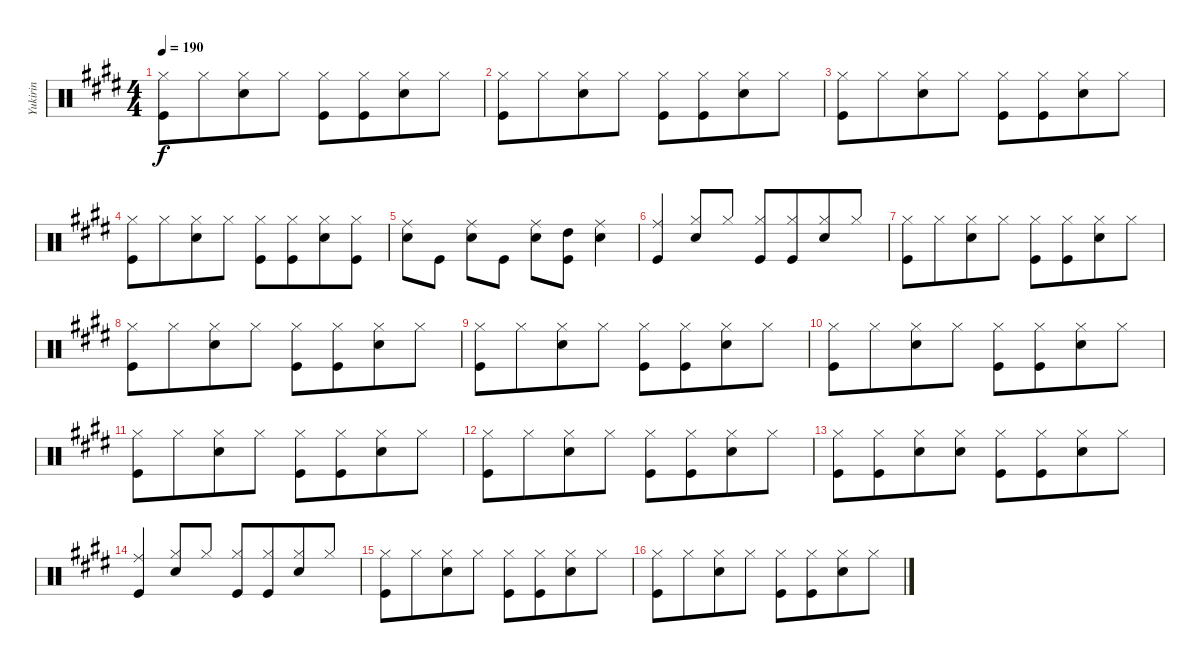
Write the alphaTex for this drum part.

\track ("Yukirin" "Yukirin") {mute instrument percussion}
\staff {score}
\articulation defaults
\ts (4 4)
\tempo 190
\clef neutral
\ks e
("Hi-Hat (closed)" "Kick (hit)").8{dy f} "Hi-Hat (closed)".8{beam merge} ("Hi-Hat (closed)" "Snare (hit) 2").8 "Hi-Hat (closed)".8 ("Hi-Hat (closed)" "Kick (hit)").8 ("Hi-Hat (closed)" "Kick (hit)").8{beam merge} ("Hi-Hat (closed)" "Snare (hit) 2").8 "Hi-Hat (closed)".8 |
("Hi-Hat (closed)" "Kick (hit)").8 "Hi-Hat (closed)".8{beam merge} ("Hi-Hat (closed)" "Snare (hit) 2").8 "Hi-Hat (closed)".8 ("Hi-Hat (closed)" "Kick (hit)").8 ("Hi-Hat (closed)" "Kick (hit)").8{beam merge} ("Hi-Hat (closed)" "Snare (hit) 2").8 "Hi-Hat (closed)".8 |
("Hi-Hat (closed)" "Kick (hit)").8 "Hi-Hat (closed)".8{beam merge} ("Hi-Hat (closed)" "Snare (hit) 2").8 "Hi-Hat (closed)".8 ("Hi-Hat (closed)" "Kick (hit)").8 ("Hi-Hat (closed)" "Kick (hit)").8{beam merge} ("Hi-Hat (closed)" "Snare (hit) 2").8 "Hi-Hat (closed)".8 |
("Hi-Hat (closed)" "Kick (hit)").8 "Hi-Hat (closed)".8{beam merge} ("Hi-Hat (closed)" "Snare (hit) 2").8 "Hi-Hat (closed)".8 ("Hi-Hat (closed)" "Kick (hit)").8 ("Hi-Hat (closed)" "Kick (hit)").8{beam merge} ("Hi-Hat (closed)" "Snare (hit) 2").8 ("Hi-Hat (closed)" "Kick (hit)").8 |
("Ride (middle)" "Snare (hit) 2").8 "Kick (hit)".8 ("Ride (middle)" "Snare (hit) 2").8 "Kick (hit)".8 ("Ride (middle)" "Snare (hit) 2").8 ("High Tom (hit)" "Kick (hit)").8 ("Ride (middle)" "Snare (hit) 2").4 |
("Ride (middle)" "Kick (hit)").4{beam Up} ("Hi-Hat (closed)" "Snare (hit) 2").8{beam Up} "Hi-Hat (closed)".8{beam Up} ("Hi-Hat (closed)" "Kick (hit)").8{beam Up} ("Hi-Hat (closed)" "Kick (hit)").8{beam Up beam merge} ("Hi-Hat (closed)" "Snare (hit) 2").8{beam Up} "Hi-Hat (closed)".8{beam Up} |
("Hi-Hat (closed)" "Kick (hit)").8 "Hi-Hat (closed)".8{beam merge} ("Hi-Hat (closed)" "Snare (hit) 2").8 "Hi-Hat (closed)".8 ("Hi-Hat (closed)" "Kick (hit)").8 ("Hi-Hat (closed)" "Kick (hit)").8{beam merge} ("Hi-Hat (closed)" "Snare (hit) 2").8 "Hi-Hat (closed)".8 |
("Hi-Hat (closed)" "Kick (hit)").8 "Hi-Hat (closed)".8{beam merge} ("Hi-Hat (closed)" "Snare (hit) 2").8 "Hi-Hat (closed)".8 ("Hi-Hat (closed)" "Kick (hit)").8 ("Hi-Hat (closed)" "Kick (hit)").8{beam merge} ("Hi-Hat (closed)" "Snare (hit) 2").8 "Hi-Hat (closed)".8 |
("Hi-Hat (closed)" "Kick (hit)").8 "Hi-Hat (closed)".8{beam merge} ("Hi-Hat (closed)" "Snare (hit) 2").8 "Hi-Hat (closed)".8 ("Hi-Hat (closed)" "Kick (hit)").8 ("Hi-Hat (closed)" "Kick (hit)").8{beam merge} ("Hi-Hat (closed)" "Snare (hit) 2").8 "Hi-Hat (closed)".8 |
("Hi-Hat (closed)" "Kick (hit)").8 "Hi-Hat (closed)".8{beam merge} ("Hi-Hat (closed)" "Snare (hit) 2").8 "Hi-Hat (closed)".8 ("Hi-Hat (closed)" "Kick (hit)").8 ("Hi-Hat (closed)" "Kick (hit)").8{beam merge} ("Hi-Hat (closed)" "Snare (hit) 2").8 "Hi-Hat (closed)".8 |
("Hi-Hat (closed)" "Kick (hit)").8 "Hi-Hat (closed)".8{beam merge} ("Hi-Hat (closed)" "Snare (hit) 2").8 "Hi-Hat (closed)".8 ("Hi-Hat (closed)" "Kick (hit)").8 ("Hi-Hat (closed)" "Kick (hit)").8{beam merge} ("Hi-Hat (closed)" "Snare (hit) 2").8 "Hi-Hat (closed)".8 |
("Hi-Hat (closed)" "Kick (hit)").8 "Hi-Hat (closed)".8{beam merge} ("Hi-Hat (closed)" "Snare (hit) 2").8 "Hi-Hat (closed)".8 ("Hi-Hat (closed)" "Kick (hit)").8 ("Hi-Hat (closed)" "Kick (hit)").8{beam merge} ("Hi-Hat (closed)" "Snare (hit) 2").8 "Hi-Hat (closed)".8 |
("Hi-Hat (closed)" "Kick (hit)").8 ("Hi-Hat (closed)" "Kick (hit)").8{beam merge} ("Hi-Hat (closed)" "Snare (hit) 2").8 ("Hi-Hat (closed)" "Snare (hit) 2").8 ("Hi-Hat (closed)" "Kick (hit)").8 ("Hi-Hat (closed)" "Kick (hit)").8{beam merge} ("Hi-Hat (closed)" "Snare (hit) 2").8 "Hi-Hat (closed)".8 |
("Ride (middle)" "Kick (hit)").4{beam Up} ("Hi-Hat (closed)" "Snare (hit) 2").8{beam Up} "Hi-Hat (closed)".8{beam Up} ("Hi-Hat (closed)" "Kick (hit)").8{beam Up} ("Hi-Hat (closed)" "Kick (hit)").8{beam Up beam merge} ("Hi-Hat (closed)" "Snare (hit) 2").8{beam Up} "Hi-Hat (closed)".8{beam Up} |
("Hi-Hat (closed)" "Kick (hit)").8 "Hi-Hat (closed)".8{beam merge} ("Hi-Hat (closed)" "Snare (hit) 2").8 "Hi-Hat (closed)".8 ("Hi-Hat (closed)" "Kick (hit)").8 ("Hi-Hat (closed)" "Kick (hit)").8{beam merge} ("Hi-Hat (closed)" "Snare (hit) 2").8 "Hi-Hat (closed)".8 |
("Hi-Hat (closed)" "Kick (hit)").8 "Hi-Hat (closed)".8{beam merge} ("Hi-Hat (closed)" "Snare (hit) 2").8 "Hi-Hat (closed)".8 ("Hi-Hat (closed)" "Kick (hit)").8 ("Hi-Hat (closed)" "Kick (hit)").8{beam merge} ("Hi-Hat (closed)" "Snare (hit) 2").8 "Hi-Hat (closed)".8
